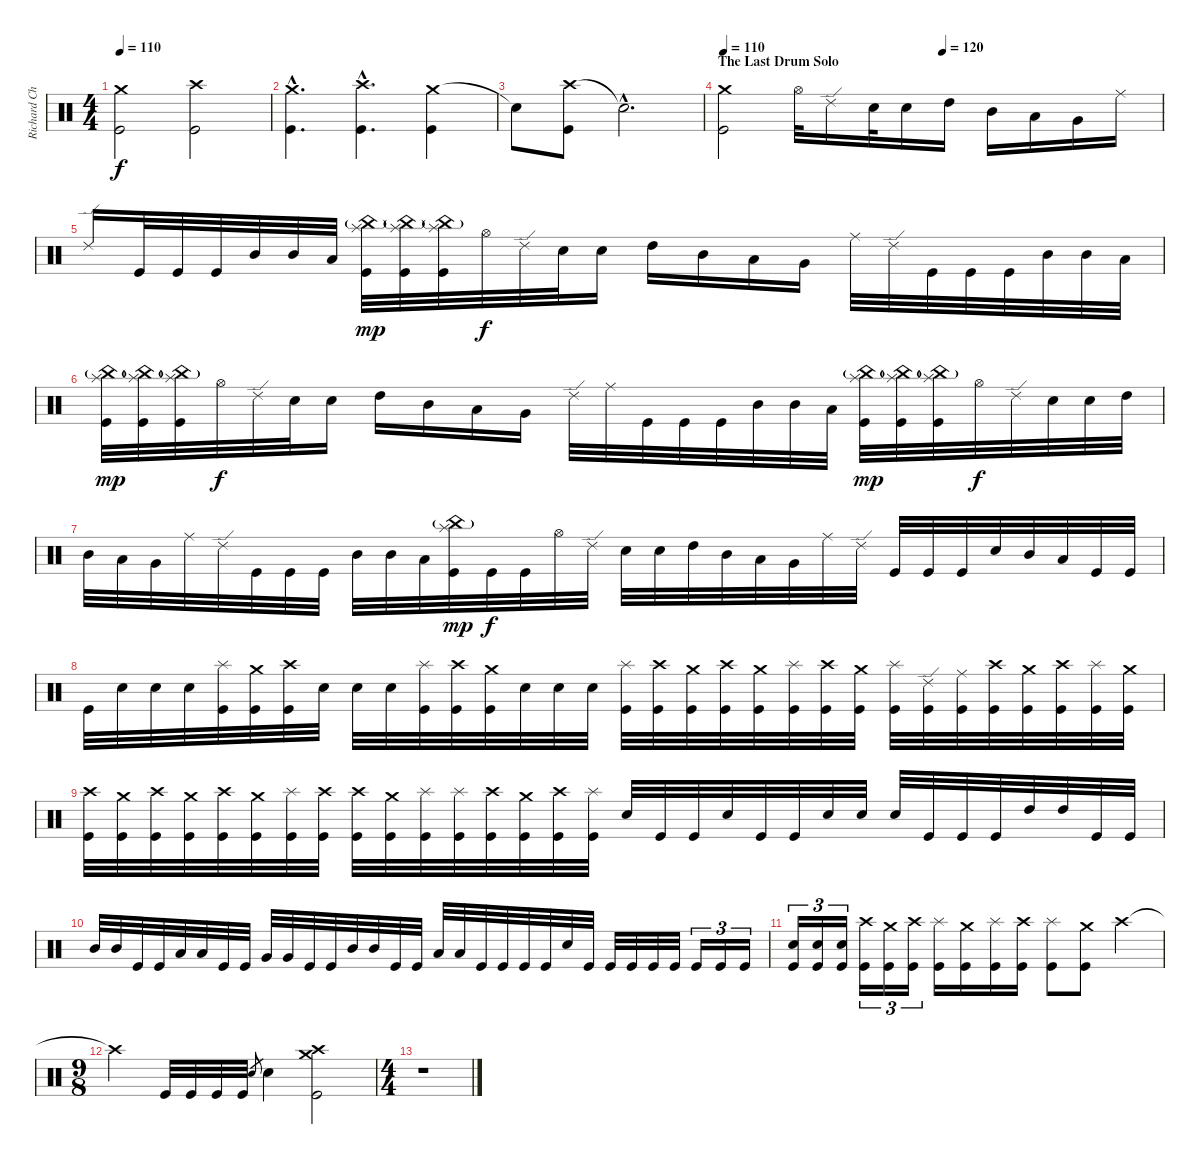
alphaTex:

\track ("Richard Christy" "Richard Ch") {instrument percussion}
\staff {score}
\articulation defaults
\ts (4 4)
\tempo 110
\clef neutral
\ks c
("Crash medium (hit)" "Kick (hit)").2{dy f} ("Crash high (hit)" "Kick (hit)").2 |
("Crash medium (hit)"{hac} "Kick (hit)"{hac}).4{d} ("Crash high (hit)"{hac} "Kick (hit)"{hac}).4{d} ("Crash medium (hit)" "Kick (hit)").4 |
"Snare (hit)"{t}.8 ("Crash high (hit)" "Kick (hit)").8 "Snare (hit)"{hac t}.2{d} |
\section ("" "The Last Drum Solo")
\tempo 110
\tempo (120 0.5)
("Crash medium (hit)" "Kick (hit)").2 "Hi-Hat (open)".32 "Ride (edge) 2".16 "Electric Snare (hit)".32 "Electric Snare (hit)".16 "High Tom (hit)".16 "Mid Tom (hit)".16 "Low Tom (hit)".16 "Very Low Tom (hit)".16 "Ride (middle)".16 |
"Ride (edge) 2".16 "Kick (hit)".32 "Kick (hit)".32 "Kick (hit)".32 "Mid Tom (hit)".32 "Mid Tom (hit)".32 "Low Tom (hit)".32 ("Splash (hit)" "China (hit)"{g} "Kick (hit)").32{dy mp} ("Splash (hit)" "China (hit)"{g} "Kick (hit)").32 ("Splash (hit)" "China (hit)"{g} "Kick (hit)").32 "Hi-Hat (open)".32{dy f} "Ride (edge) 2".32 "Electric Snare (hit)".32 "Electric Snare (hit)".16 "High Tom (hit)".16 "Mid Tom (hit)".16 "Low Tom (hit)".16 "Very Low Tom (hit)".16 "Ride (middle)".32 "Ride (edge) 2".32 "Kick (hit)".32 "Kick (hit)".32 "Kick (hit)".32 "Mid Tom (hit)".32 "Mid Tom (hit)".32 "Low Tom (hit)".32 |
("Splash (hit)" "China (hit)"{g} "Kick (hit)").32{dy mp} ("Splash (hit)" "China (hit)"{g} "Kick (hit)").32 ("Splash (hit)" "China (hit)"{g} "Kick (hit)").32 "Hi-Hat (open)".32{dy f} "Ride (edge) 2".32 "Electric Snare (hit)".32 "Electric Snare (hit)".16 "High Tom (hit)".16 "Mid Tom (hit)".16 "Low Tom (hit)".16 "Very Low Tom (hit)".16 "Ride (edge) 2".32 "Ride (middle)".32 "Kick (hit)".32 "Kick (hit)".32 "Kick (hit)".32 "Mid Tom (hit)".32 "Mid Tom (hit)".32 "Low Tom (hit)".32 ("Splash (hit)" "China (hit)"{g} "Kick (hit)").32{dy mp} ("Splash (hit)" "China (hit)"{g} "Kick (hit)").32 ("Splash (hit)" "China (hit)"{g} "Kick (hit)").32 "Hi-Hat (open)".32{dy f} "Ride (edge) 2".32 "Electric Snare (hit)".32 "Electric Snare (hit)".32 "High Tom (hit)".32 |
"Mid Tom (hit)".32 "Low Tom (hit)".32 "Very Low Tom (hit)".32 "Ride (middle)".32 "Ride (edge) 2".32 "Kick (hit)".32 "Kick (hit)".32 "Kick (hit)".32 "Mid Tom (hit)".32 "Mid Tom (hit)".32 "Low Tom (hit)".32 ("Splash (hit)" "China (hit)"{g} "Kick (hit)").32{dy mp} "Kick (hit)".32{dy f} "Kick (hit)".32 "Hi-Hat (open)".32 "Ride (edge) 2".32 "Electric Snare (hit)".32 "Electric Snare (hit)".32 "High Tom (hit)".32 "Mid Tom (hit)".32 "Low Tom (hit)".32 "Very Low Tom (hit)".32 "Ride (middle)".32 "Ride (edge) 2".32 "Kick (hit)".32 "Kick (hit)".32 "Kick (hit)".32 "Electric Snare (hit)".32 "Mid Tom (hit)".32 "Low Tom (hit)".32 "Kick (hit)".32 "Kick (hit)".32 |
"Kick (hit)".32 "Electric Snare (hit)".32 "Electric Snare (hit)".32 "Electric Snare (hit)".32 ("Splash (hit)" "Kick (hit)").32 ("Crash medium (hit)" "Kick (hit)").32 ("Crash high (hit)" "Kick (hit)").32 "Electric Snare (hit)".32 "Electric Snare (hit)".32 "Electric Snare (hit)".32 ("Splash (hit)" "Kick (hit)").32 ("Crash high (hit)" "Kick (hit)").32 ("Crash medium (hit)" "Kick (hit)").32 "Electric Snare (hit)".32 "Electric Snare (hit)".32 "Electric Snare (hit)".32 ("Splash (hit)" "Kick (hit)").32 ("Crash high (hit)" "Kick (hit)").32 ("Crash medium (hit)" "Kick (hit)").32 ("Crash high (hit)" "Kick (hit)").32 ("Crash medium (hit)" "Kick (hit)").32 ("Splash (hit)" "Kick (hit)").32 ("Crash high (hit)" "Kick (hit)").32 ("Crash medium (hit)" "Kick (hit)").32 ("Splash (hit)" "Kick (hit)").32 ("Ride (edge) 2" "Kick (hit)").32 ("Ride (middle)" "Kick (hit)").32 ("Crash high (hit)" "Kick (hit)").32 ("Crash medium (hit)" "Kick (hit)").32 ("Crash high (hit)" "Kick (hit)").32 ("Splash (hit)" "Kick (hit)").32 ("Crash medium (hit)" "Kick (hit)").32 |
("Crash high (hit)" "Kick (hit)").32 ("Crash medium (hit)" "Kick (hit)").32 ("Crash high (hit)" "Kick (hit)").32 ("Crash medium (hit)" "Kick (hit)").32 ("Crash high (hit)" "Kick (hit)").32 ("Crash medium (hit)" "Kick (hit)").32 ("Splash (hit)" "Kick (hit)").32 ("Crash high (hit)" "Kick (hit)").32 ("Crash high (hit)" "Kick (hit)").32 ("Crash medium (hit)" "Kick (hit)").32 ("Splash (hit)" "Kick (hit)").32 ("Splash (hit)" "Kick (hit)").32 ("Crash high (hit)" "Kick (hit)").32 ("Crash medium (hit)" "Kick (hit)").32 ("Crash high (hit)" "Kick (hit)").32 ("Splash (hit)" "Kick (hit)").32 "Electric Snare (hit)".32 "Kick (hit)".32 "Kick (hit)".32 "Electric Snare (hit)".32 "Kick (hit)".32 "Kick (hit)".32 "Electric Snare (hit)".32 "Electric Snare (hit)".32 "Electric Snare (hit)".32 "Kick (hit)".32 "Kick (hit)".32 "Kick (hit)".32 "High Tom (hit)".32 "High Tom (hit)".32 "Kick (hit)".32 "Kick (hit)".32 |
"Mid Tom (hit)".32 "Mid Tom (hit)".32 "Kick (hit)".32 "Kick (hit)".32 "Low Tom (hit)".32 "Low Tom (hit)".32 "Kick (hit)".32 "Kick (hit)".32 "Very Low Tom (hit)".32 "Very Low Tom (hit)".32 "Kick (hit)".32 "Kick (hit)".32 "Mid Tom (hit)".32 "Mid Tom (hit)".32 "Kick (hit)".32 "Kick (hit)".32 "Low Tom (hit)".32 "Low Tom (hit)".32 "Kick (hit)".32 "Kick (hit)".32 "Kick (hit)".32 "Kick (hit)".32 "Electric Snare (hit)".32 "Kick (hit)".32 "Kick (hit)".32 "Kick (hit)".32 "Kick (hit)".32 "Kick (hit)".32 "Kick (hit)".16{tu (3 2)} "Kick (hit)".16{tu (3 2)} "Kick (hit)".16{tu (3 2)} |
("Electric Snare (hit)" "Kick (hit)").16{tu (3 2)} ("Electric Snare (hit)" "Kick (hit)").16{tu (3 2)} ("Electric Snare (hit)" "Kick (hit)").16{tu (3 2)} ("Crash high (hit)" "Kick (hit)").16{tu (3 2)} ("Crash medium (hit)" "Kick (hit)").16{tu (3 2)} ("Crash high (hit)" "Kick (hit)").16{tu (3 2)} ("Splash (hit)" "Kick (hit)").16 ("Crash medium (hit)" "Kick (hit)").16 ("Splash (hit)" "Kick (hit)").16 ("Crash high (hit)" "Kick (hit)").16 ("Splash (hit)" "Kick (hit)").8 ("Crash medium (hit)" "Kick (hit)").8 "Crash high (hit)".4 |
\ts (9 8)
"Crash high (hit)"{t}.4 "Kick (hit)".32 "Kick (hit)".32 "Kick (hit)".32 "Kick (hit)".32 "Electric Snare (hit)".8{gr} "Electric Snare (hit)".4 ("Crash medium (hit)" "Crash high (hit)" "Kick (hit)").2 |
\ts (4 4)
r.1
